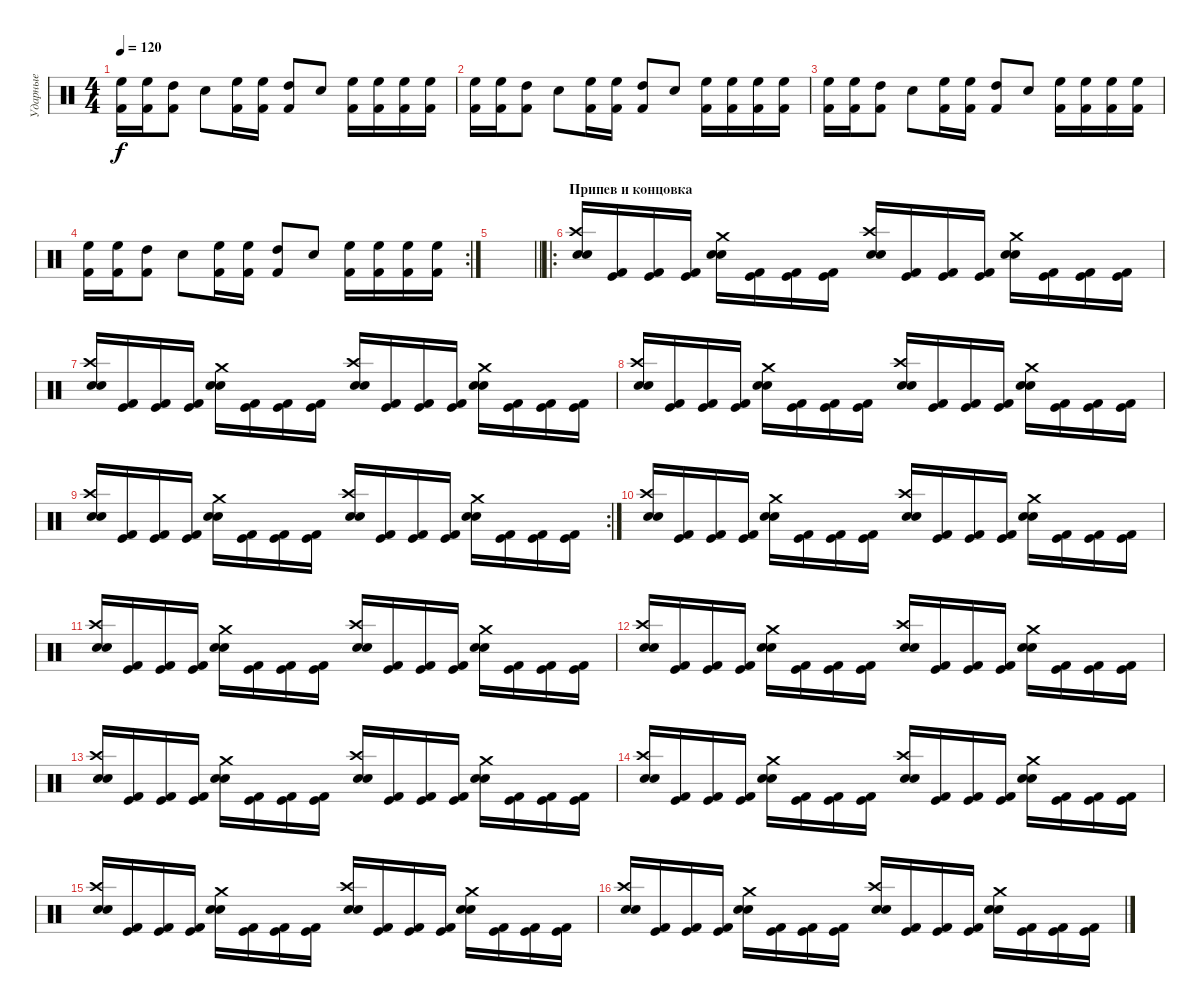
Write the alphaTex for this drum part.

\track ("Ударные" "Ударные") {instrument percussion}
\staff {score}
\articulation defaults
\ts (4 4)
\tempo 120
\clef neutral
\ks c
("High Floor Tom (hit)" "Kick (hit) 2").16{dy f} ("High Floor Tom (hit)" "Kick (hit) 2").16 ("High Tom (hit)" "Kick (hit) 2").8 "Snare (hit) 2".8 ("High Floor Tom (hit)" "Kick (hit) 2").16 ("High Floor Tom (hit)" "Kick (hit) 2").16 ("High Tom (hit)" "Kick (hit) 2").8 "Snare (hit) 2".8 ("High Floor Tom (hit)" "Kick (hit) 2").16 ("High Floor Tom (hit)" "Kick (hit) 2").16 ("High Floor Tom (hit)" "Kick (hit) 2").16 ("High Floor Tom (hit)" "Kick (hit) 2").16 |
("High Floor Tom (hit)" "Kick (hit) 2").16 ("High Floor Tom (hit)" "Kick (hit) 2").16 ("High Tom (hit)" "Kick (hit) 2").8 "Snare (hit) 2".8 ("High Floor Tom (hit)" "Kick (hit) 2").16 ("High Floor Tom (hit)" "Kick (hit) 2").16 ("High Tom (hit)" "Kick (hit) 2").8 "Snare (hit) 2".8 ("High Floor Tom (hit)" "Kick (hit) 2").16 ("High Floor Tom (hit)" "Kick (hit) 2").16 ("High Floor Tom (hit)" "Kick (hit) 2").16 ("High Floor Tom (hit)" "Kick (hit) 2").16 |
("High Floor Tom (hit)" "Kick (hit) 2").16 ("High Floor Tom (hit)" "Kick (hit) 2").16 ("High Tom (hit)" "Kick (hit) 2").8 "Snare (hit) 2".8 ("High Floor Tom (hit)" "Kick (hit) 2").16 ("High Floor Tom (hit)" "Kick (hit) 2").16 ("High Tom (hit)" "Kick (hit) 2").8 "Snare (hit) 2".8 ("High Floor Tom (hit)" "Kick (hit) 2").16 ("High Floor Tom (hit)" "Kick (hit) 2").16 ("High Floor Tom (hit)" "Kick (hit) 2").16 ("High Floor Tom (hit)" "Kick (hit) 2").16 |
\rc 2
("High Floor Tom (hit)" "Kick (hit) 2").16 ("High Floor Tom (hit)" "Kick (hit) 2").16 ("High Tom (hit)" "Kick (hit) 2").8 "Snare (hit) 2".8 ("High Floor Tom (hit)" "Kick (hit) 2").16 ("High Floor Tom (hit)" "Kick (hit) 2").16 ("High Tom (hit)" "Kick (hit) 2").8 "Snare (hit) 2".8 ("High Floor Tom (hit)" "Kick (hit) 2").16 ("High Floor Tom (hit)" "Kick (hit) 2").16 ("High Floor Tom (hit)" "Kick (hit) 2").16 ("High Floor Tom (hit)" "Kick (hit) 2").16 |
\barLineRight lightlight
|
\ro
\section ("" "Припев и концовка")
("Crash high (hit)" "Snare (hit) 2" "Electric Snare (hit)").16 ("Kick (hit)" "Kick (hit) 2").16 ("Kick (hit)" "Kick (hit) 2").16 ("Kick (hit)" "Kick (hit) 2").16 ("Crash medium (hit)" "Snare (hit) 2" "Electric Snare (hit)").16 ("Kick (hit)" "Kick (hit) 2").16 ("Kick (hit)" "Kick (hit) 2").16 ("Kick (hit)" "Kick (hit) 2").16 ("Crash high (hit)" "Snare (hit) 2" "Electric Snare (hit)").16 ("Kick (hit)" "Kick (hit) 2").16 ("Kick (hit)" "Kick (hit) 2").16 ("Kick (hit)" "Kick (hit) 2").16 ("Crash medium (hit)" "Snare (hit) 2" "Electric Snare (hit)").16 ("Kick (hit)" "Kick (hit) 2").16 ("Kick (hit)" "Kick (hit) 2").16 ("Kick (hit)" "Kick (hit) 2").16 |
("Crash high (hit)" "Snare (hit) 2" "Electric Snare (hit)").16 ("Kick (hit)" "Kick (hit) 2").16 ("Kick (hit)" "Kick (hit) 2").16 ("Kick (hit)" "Kick (hit) 2").16 ("Crash medium (hit)" "Snare (hit) 2" "Electric Snare (hit)").16 ("Kick (hit)" "Kick (hit) 2").16 ("Kick (hit)" "Kick (hit) 2").16 ("Kick (hit)" "Kick (hit) 2").16 ("Crash high (hit)" "Snare (hit) 2" "Electric Snare (hit)").16 ("Kick (hit)" "Kick (hit) 2").16 ("Kick (hit)" "Kick (hit) 2").16 ("Kick (hit)" "Kick (hit) 2").16 ("Crash medium (hit)" "Snare (hit) 2" "Electric Snare (hit)").16 ("Kick (hit)" "Kick (hit) 2").16 ("Kick (hit)" "Kick (hit) 2").16 ("Kick (hit)" "Kick (hit) 2").16 |
("Crash high (hit)" "Snare (hit) 2" "Electric Snare (hit)").16 ("Kick (hit)" "Kick (hit) 2").16 ("Kick (hit)" "Kick (hit) 2").16 ("Kick (hit)" "Kick (hit) 2").16 ("Crash medium (hit)" "Snare (hit) 2" "Electric Snare (hit)").16 ("Kick (hit)" "Kick (hit) 2").16 ("Kick (hit)" "Kick (hit) 2").16 ("Kick (hit)" "Kick (hit) 2").16 ("Crash high (hit)" "Snare (hit) 2" "Electric Snare (hit)").16 ("Kick (hit)" "Kick (hit) 2").16 ("Kick (hit)" "Kick (hit) 2").16 ("Kick (hit)" "Kick (hit) 2").16 ("Crash medium (hit)" "Snare (hit) 2" "Electric Snare (hit)").16 ("Kick (hit)" "Kick (hit) 2").16 ("Kick (hit)" "Kick (hit) 2").16 ("Kick (hit)" "Kick (hit) 2").16 |
\rc 2
("Crash high (hit)" "Snare (hit) 2" "Electric Snare (hit)").16 ("Kick (hit)" "Kick (hit) 2").16 ("Kick (hit)" "Kick (hit) 2").16 ("Kick (hit)" "Kick (hit) 2").16 ("Crash medium (hit)" "Snare (hit) 2" "Electric Snare (hit)").16 ("Kick (hit)" "Kick (hit) 2").16 ("Kick (hit)" "Kick (hit) 2").16 ("Kick (hit)" "Kick (hit) 2").16 ("Crash high (hit)" "Snare (hit) 2" "Electric Snare (hit)").16 ("Kick (hit)" "Kick (hit) 2").16 ("Kick (hit)" "Kick (hit) 2").16 ("Kick (hit)" "Kick (hit) 2").16 ("Crash medium (hit)" "Snare (hit) 2" "Electric Snare (hit)").16 ("Kick (hit)" "Kick (hit) 2").16 ("Kick (hit)" "Kick (hit) 2").16 ("Kick (hit)" "Kick (hit) 2").16 |
("Crash high (hit)" "Snare (hit) 2" "Electric Snare (hit)").16 ("Kick (hit)" "Kick (hit) 2").16 ("Kick (hit)" "Kick (hit) 2").16 ("Kick (hit)" "Kick (hit) 2").16 ("Crash medium (hit)" "Snare (hit) 2" "Electric Snare (hit)").16 ("Kick (hit)" "Kick (hit) 2").16 ("Kick (hit)" "Kick (hit) 2").16 ("Kick (hit)" "Kick (hit) 2").16 ("Crash high (hit)" "Snare (hit) 2" "Electric Snare (hit)").16 ("Kick (hit)" "Kick (hit) 2").16 ("Kick (hit)" "Kick (hit) 2").16 ("Kick (hit)" "Kick (hit) 2").16 ("Crash medium (hit)" "Snare (hit) 2" "Electric Snare (hit)").16 ("Kick (hit)" "Kick (hit) 2").16 ("Kick (hit)" "Kick (hit) 2").16 ("Kick (hit)" "Kick (hit) 2").16 |
("Crash high (hit)" "Snare (hit) 2" "Electric Snare (hit)").16 ("Kick (hit)" "Kick (hit) 2").16 ("Kick (hit)" "Kick (hit) 2").16 ("Kick (hit)" "Kick (hit) 2").16 ("Crash medium (hit)" "Snare (hit) 2" "Electric Snare (hit)").16 ("Kick (hit)" "Kick (hit) 2").16 ("Kick (hit)" "Kick (hit) 2").16 ("Kick (hit)" "Kick (hit) 2").16 ("Crash high (hit)" "Snare (hit) 2" "Electric Snare (hit)").16 ("Kick (hit)" "Kick (hit) 2").16 ("Kick (hit)" "Kick (hit) 2").16 ("Kick (hit)" "Kick (hit) 2").16 ("Crash medium (hit)" "Snare (hit) 2" "Electric Snare (hit)").16 ("Kick (hit)" "Kick (hit) 2").16 ("Kick (hit)" "Kick (hit) 2").16 ("Kick (hit)" "Kick (hit) 2").16 |
("Crash high (hit)" "Snare (hit) 2" "Electric Snare (hit)").16 ("Kick (hit)" "Kick (hit) 2").16 ("Kick (hit)" "Kick (hit) 2").16 ("Kick (hit)" "Kick (hit) 2").16 ("Crash medium (hit)" "Snare (hit) 2" "Electric Snare (hit)").16 ("Kick (hit)" "Kick (hit) 2").16 ("Kick (hit)" "Kick (hit) 2").16 ("Kick (hit)" "Kick (hit) 2").16 ("Crash high (hit)" "Snare (hit) 2" "Electric Snare (hit)").16 ("Kick (hit)" "Kick (hit) 2").16 ("Kick (hit)" "Kick (hit) 2").16 ("Kick (hit)" "Kick (hit) 2").16 ("Crash medium (hit)" "Snare (hit) 2" "Electric Snare (hit)").16 ("Kick (hit)" "Kick (hit) 2").16 ("Kick (hit)" "Kick (hit) 2").16 ("Kick (hit)" "Kick (hit) 2").16 |
("Crash high (hit)" "Snare (hit) 2" "Electric Snare (hit)").16 ("Kick (hit)" "Kick (hit) 2").16 ("Kick (hit)" "Kick (hit) 2").16 ("Kick (hit)" "Kick (hit) 2").16 ("Crash medium (hit)" "Snare (hit) 2" "Electric Snare (hit)").16 ("Kick (hit)" "Kick (hit) 2").16 ("Kick (hit)" "Kick (hit) 2").16 ("Kick (hit)" "Kick (hit) 2").16 ("Crash high (hit)" "Snare (hit) 2" "Electric Snare (hit)").16 ("Kick (hit)" "Kick (hit) 2").16 ("Kick (hit)" "Kick (hit) 2").16 ("Kick (hit)" "Kick (hit) 2").16 ("Crash medium (hit)" "Snare (hit) 2" "Electric Snare (hit)").16 ("Kick (hit)" "Kick (hit) 2").16 ("Kick (hit)" "Kick (hit) 2").16 ("Kick (hit)" "Kick (hit) 2").16 |
("Crash high (hit)" "Snare (hit) 2" "Electric Snare (hit)").16 ("Kick (hit)" "Kick (hit) 2").16 ("Kick (hit)" "Kick (hit) 2").16 ("Kick (hit)" "Kick (hit) 2").16 ("Crash medium (hit)" "Snare (hit) 2" "Electric Snare (hit)").16 ("Kick (hit)" "Kick (hit) 2").16 ("Kick (hit)" "Kick (hit) 2").16 ("Kick (hit)" "Kick (hit) 2").16 ("Crash high (hit)" "Snare (hit) 2" "Electric Snare (hit)").16 ("Kick (hit)" "Kick (hit) 2").16 ("Kick (hit)" "Kick (hit) 2").16 ("Kick (hit)" "Kick (hit) 2").16 ("Crash medium (hit)" "Snare (hit) 2" "Electric Snare (hit)").16 ("Kick (hit)" "Kick (hit) 2").16 ("Kick (hit)" "Kick (hit) 2").16 ("Kick (hit)" "Kick (hit) 2").16 |
("Crash high (hit)" "Snare (hit) 2" "Electric Snare (hit)").16 ("Kick (hit)" "Kick (hit) 2").16 ("Kick (hit)" "Kick (hit) 2").16 ("Kick (hit)" "Kick (hit) 2").16 ("Crash medium (hit)" "Snare (hit) 2" "Electric Snare (hit)").16 ("Kick (hit)" "Kick (hit) 2").16 ("Kick (hit)" "Kick (hit) 2").16 ("Kick (hit)" "Kick (hit) 2").16 ("Crash high (hit)" "Snare (hit) 2" "Electric Snare (hit)").16 ("Kick (hit)" "Kick (hit) 2").16 ("Kick (hit)" "Kick (hit) 2").16 ("Kick (hit)" "Kick (hit) 2").16 ("Crash medium (hit)" "Snare (hit) 2" "Electric Snare (hit)").16 ("Kick (hit)" "Kick (hit) 2").16 ("Kick (hit)" "Kick (hit) 2").16 ("Kick (hit)" "Kick (hit) 2").16 |
("Crash high (hit)" "Snare (hit) 2" "Electric Snare (hit)").16 ("Kick (hit)" "Kick (hit) 2").16 ("Kick (hit)" "Kick (hit) 2").16 ("Kick (hit)" "Kick (hit) 2").16 ("Crash medium (hit)" "Snare (hit) 2" "Electric Snare (hit)").16 ("Kick (hit)" "Kick (hit) 2").16 ("Kick (hit)" "Kick (hit) 2").16 ("Kick (hit)" "Kick (hit) 2").16 ("Crash high (hit)" "Snare (hit) 2" "Electric Snare (hit)").16 ("Kick (hit)" "Kick (hit) 2").16 ("Kick (hit)" "Kick (hit) 2").16 ("Kick (hit)" "Kick (hit) 2").16 ("Crash medium (hit)" "Snare (hit) 2" "Electric Snare (hit)").16 ("Kick (hit)" "Kick (hit) 2").16 ("Kick (hit)" "Kick (hit) 2").16 ("Kick (hit)" "Kick (hit) 2").16
